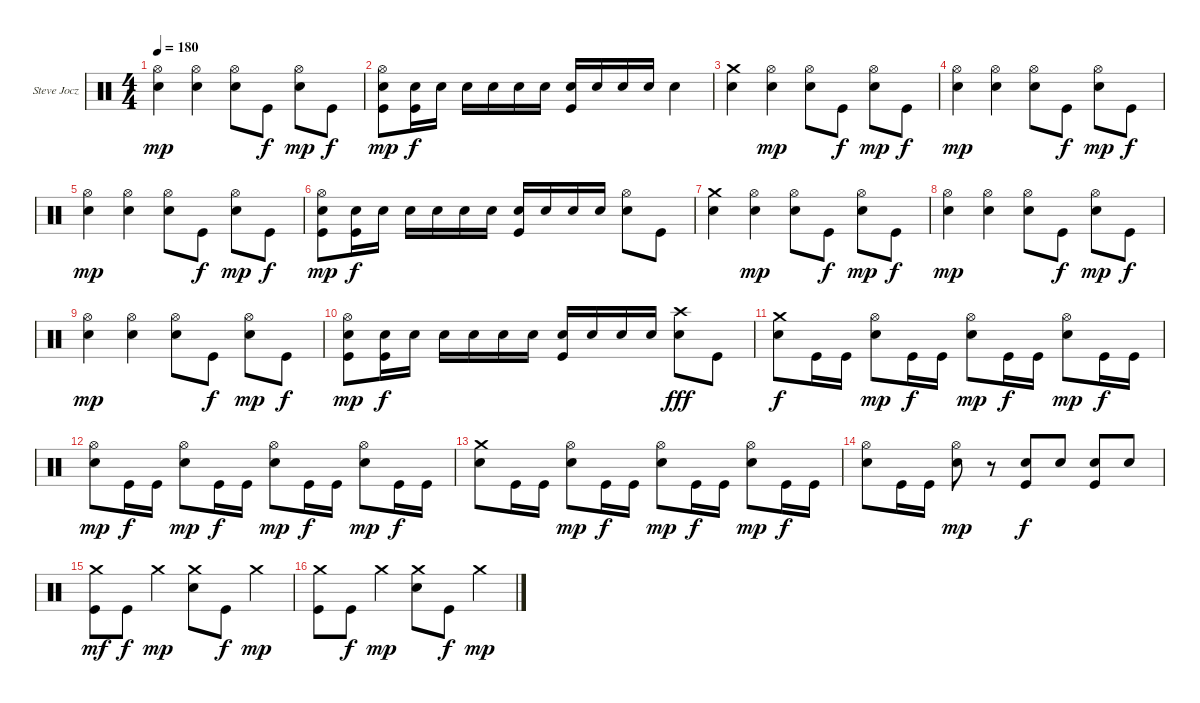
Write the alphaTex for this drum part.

\defaultSystemsLayout 4
\bracketExtendMode groupsimilarinstruments
\firstSystemTrackNameOrientation horizontal
\otherSystemsTrackNameOrientation horizontal
\track ("Steve Jocz " "Steve Jocz") {instrument percussion}
\staff {score}
\articulation defaults
\ts (4 4)
\tempo 180
\clef neutral
\ks c
("Hi-Hat (open)" "Snare (hit) 2").4{dy mp} ("Hi-Hat (open)" "Snare (hit) 2").4 ("Hi-Hat (open)" "Snare (hit) 2").8 "Kick (hit)".8{dy f} ("Hi-Hat (open)" "Snare (hit) 2").8{dy mp} "Kick (hit)".8{dy f} |
("Hi-Hat (open)" "Kick (hit)" "Snare (hit) 2").8{dy mp} ("Kick (hit)" "Snare (hit) 2").16{dy f} "Snare (hit) 2".16 "Snare (hit) 2".16 "Snare (hit) 2".16 "Snare (hit) 2".16 "Snare (hit) 2".16 ("Kick (hit)" "Snare (hit) 2").16 "Snare (hit) 2".16 "Snare (hit) 2".16 "Snare (hit) 2".16 "Snare (hit) 2".4 |
("Crash medium (hit)" "Snare (hit) 2").4 ("Hi-Hat (open)" "Snare (hit) 2").4{dy mp} ("Hi-Hat (open)" "Snare (hit) 2").8 "Kick (hit)".8{dy f} ("Hi-Hat (open)" "Snare (hit) 2").8{dy mp} "Kick (hit)".8{dy f} |
("Hi-Hat (open)" "Snare (hit) 2").4{dy mp} ("Hi-Hat (open)" "Snare (hit) 2").4 ("Hi-Hat (open)" "Snare (hit) 2").8 "Kick (hit)".8{dy f} ("Hi-Hat (open)" "Snare (hit) 2").8{dy mp} "Kick (hit)".8{dy f} |
("Hi-Hat (open)" "Snare (hit) 2").4{dy mp} ("Hi-Hat (open)" "Snare (hit) 2").4 ("Hi-Hat (open)" "Snare (hit) 2").8 "Kick (hit)".8{dy f} ("Hi-Hat (open)" "Snare (hit) 2").8{dy mp} "Kick (hit)".8{dy f} |
("Hi-Hat (open)" "Kick (hit)" "Snare (hit) 2").8{dy mp} ("Kick (hit)" "Snare (hit) 2").16{dy f} "Snare (hit) 2".16 "Snare (hit) 2".16 "Snare (hit) 2".16 "Snare (hit) 2".16 "Snare (hit) 2".16 ("Kick (hit)" "Snare (hit) 2").16 "Snare (hit) 2".16 "Snare (hit) 2".16 "Snare (hit) 2".16 ("Hi-Hat (open)" "Snare (hit) 2").8 "Kick (hit)".8 |
("Crash medium (hit)" "Snare (hit) 2").4 ("Hi-Hat (open)" "Snare (hit) 2").4{dy mp} ("Hi-Hat (open)" "Snare (hit) 2").8 "Kick (hit)".8{dy f} ("Hi-Hat (open)" "Snare (hit) 2").8{dy mp} "Kick (hit)".8{dy f} |
("Hi-Hat (open)" "Snare (hit) 2").4{dy mp} ("Hi-Hat (open)" "Snare (hit) 2").4 ("Hi-Hat (open)" "Snare (hit) 2").8 "Kick (hit)".8{dy f} ("Hi-Hat (open)" "Snare (hit) 2").8{dy mp} "Kick (hit)".8{dy f} |
("Hi-Hat (open)" "Snare (hit) 2").4{dy mp} ("Hi-Hat (open)" "Snare (hit) 2").4 ("Hi-Hat (open)" "Snare (hit) 2").8 "Kick (hit)".8{dy f} ("Hi-Hat (open)" "Snare (hit) 2").8{dy mp} "Kick (hit)".8{dy f} |
("Hi-Hat (open)" "Kick (hit)" "Snare (hit) 2").8{dy mp} ("Kick (hit)" "Snare (hit) 2").16{dy f} "Snare (hit) 2".16 "Snare (hit) 2".16 "Snare (hit) 2".16 "Snare (hit) 2".16 "Snare (hit) 2".16 ("Kick (hit)" "Snare (hit) 2").16 "Snare (hit) 2".16 "Snare (hit) 2".16 "Snare (hit) 2".16 ("Crash high (hit)" "Snare (hit) 2").8{dy fff} "Kick (hit)".8 |
("Crash medium (hit)" "Snare (hit) 2").8{dy f} "Kick (hit)".16 "Kick (hit)".16 ("Hi-Hat (open)" "Snare (hit) 2").8{dy mp} "Kick (hit)".16{dy f} "Kick (hit)".16 ("Hi-Hat (open)" "Snare (hit) 2").8{dy mp} "Kick (hit)".16{dy f} "Kick (hit)".16 ("Hi-Hat (open)" "Snare (hit) 2").8{dy mp} "Kick (hit)".16{dy f} "Kick (hit)".16 |
("Hi-Hat (open)" "Snare (hit) 2").8{dy mp} "Kick (hit)".16{dy f} "Kick (hit)".16 ("Hi-Hat (open)" "Snare (hit) 2").8{dy mp} "Kick (hit)".16{dy f} "Kick (hit)".16 ("Hi-Hat (open)" "Snare (hit) 2").8{dy mp} "Kick (hit)".16{dy f} "Kick (hit)".16 ("Hi-Hat (open)" "Snare (hit) 2").8{dy mp} "Kick (hit)".16{dy f} "Kick (hit)".16 |
("Crash medium (hit)" "Snare (hit) 2").8 "Kick (hit)".16 "Kick (hit)".16 ("Hi-Hat (open)" "Snare (hit) 2").8{dy mp} "Kick (hit)".16{dy f} "Kick (hit)".16 ("Hi-Hat (open)" "Snare (hit) 2").8{dy mp} "Kick (hit)".16{dy f} "Kick (hit)".16 ("Hi-Hat (open)" "Snare (hit) 2").8{dy mp} "Kick (hit)".16{dy f} "Kick (hit)".16 |
("Hi-Hat (open)" "Snare (hit) 2").8 "Kick (hit)".16 "Kick (hit)".16 ("Hi-Hat (open)" "Snare (hit) 2").8{dy mp} r.8 ("Kick (hit)" "Snare (hit) 2").8{dy f} "Snare (hit) 2".8 ("Kick (hit)" "Snare (hit) 2").8 "Snare (hit) 2".8 |
("Crash medium (hit)" "Kick (hit)").8{dy mf} "Kick (hit)".8{dy f} "Crash medium (hit)".4{dy mp} ("Crash medium (hit)" "Snare (hit) 2").8 "Kick (hit)".8{dy f} "Crash medium (hit)".4{dy mp} |
("Crash medium (hit)" "Kick (hit)").8 "Kick (hit)".8{dy f} "Crash medium (hit)".4{dy mp} ("Crash medium (hit)" "Snare (hit) 2").8 "Kick (hit)".8{dy f} "Crash medium (hit)".4{dy mp}
